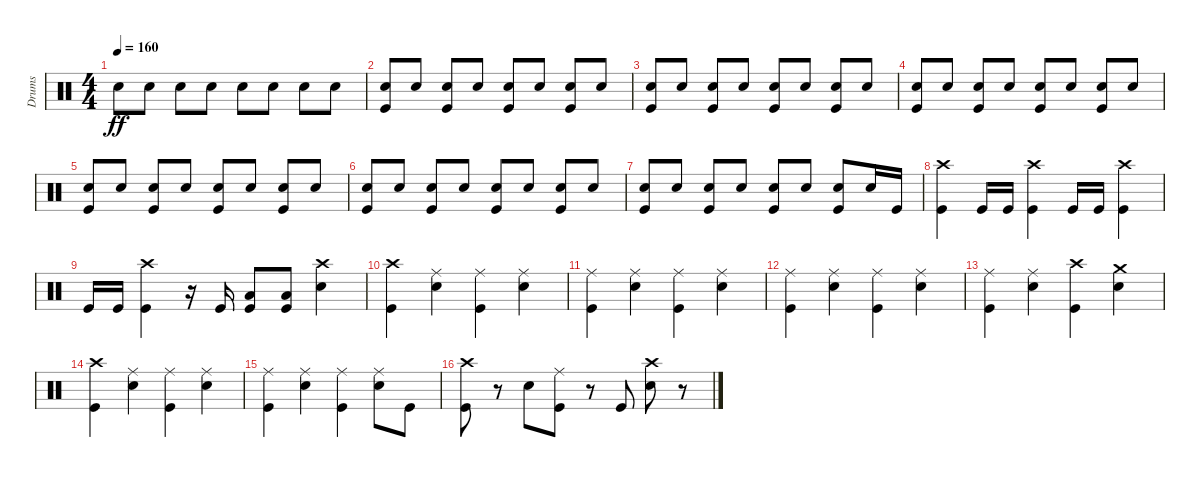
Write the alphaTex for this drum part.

\track ("Drums" "Drums") {instrument percussion}
\staff {score}
\articulation defaults
\ts (4 4)
\tempo 160
\clef neutral
\ks c "Snare (hit) 2".8{dy ff} "Snare (hit) 2".8 "Snare (hit) 2".8 "Snare (hit) 2".8 "Snare (hit) 2".8 "Snare (hit) 2".8 "Snare (hit) 2".8 "Snare (hit) 2".8
|
("Snare (hit) 2" "Kick (hit)").8 "Snare (hit) 2".8 ("Snare (hit) 2" "Kick (hit)").8 "Snare (hit) 2".8 ("Snare (hit) 2" "Kick (hit)").8 "Snare (hit) 2".8 ("Snare (hit) 2" "Kick (hit)").8 "Snare (hit) 2".8 |
("Snare (hit) 2" "Kick (hit)").8 "Snare (hit) 2".8 ("Snare (hit) 2" "Kick (hit)").8 "Snare (hit) 2".8 ("Snare (hit) 2" "Kick (hit)").8 "Snare (hit) 2".8 ("Snare (hit) 2" "Kick (hit)").8 "Snare (hit) 2".8 |
("Snare (hit) 2" "Kick (hit)").8 "Snare (hit) 2".8 ("Snare (hit) 2" "Kick (hit)").8 "Snare (hit) 2".8 ("Snare (hit) 2" "Kick (hit)").8 "Snare (hit) 2".8 ("Snare (hit) 2" "Kick (hit)").8 "Snare (hit) 2".8 |
("Snare (hit) 2" "Kick (hit)").8 "Snare (hit) 2".8 ("Snare (hit) 2" "Kick (hit)").8 "Snare (hit) 2".8 ("Snare (hit) 2" "Kick (hit)").8 "Snare (hit) 2".8 ("Snare (hit) 2" "Kick (hit)").8 "Snare (hit) 2".8 |
("Snare (hit) 2" "Kick (hit)").8 "Snare (hit) 2".8 ("Snare (hit) 2" "Kick (hit)").8 "Snare (hit) 2".8 ("Snare (hit) 2" "Kick (hit)").8 "Snare (hit) 2".8 ("Snare (hit) 2" "Kick (hit)").8 "Snare (hit) 2".8 |
("Snare (hit) 2" "Kick (hit)").8 "Snare (hit) 2".8 ("Snare (hit) 2" "Kick (hit)").8 "Snare (hit) 2".8 ("Snare (hit) 2" "Kick (hit)").8 "Snare (hit) 2".8 ("Snare (hit) 2" "Kick (hit)").8 "Snare (hit) 2".16 "Kick (hit)".16 |
("Crash high (hit)" "Kick (hit)").4 "Kick (hit)".16 "Kick (hit)".16 ("Crash high (hit)" "Kick (hit)").4 "Kick (hit)".16 "Kick (hit)".16 ("Crash high (hit)" "Kick (hit)").4 |
"Kick (hit)".16 "Kick (hit)".16 ("Crash high (hit)" "Kick (hit)").4 r.16 "Kick (hit)".16 ("Low Floor Tom (hit)" "Kick (hit)").8 ("Low Floor Tom (hit)" "Kick (hit)").8 ("Crash high (hit)" "Snare (hit) 2").4 |
("Crash high (hit)" "Kick (hit)").4 ("Ride (middle)" "Snare (hit) 2").4 ("Ride (middle)" "Kick (hit)").4 ("Ride (middle)" "Snare (hit) 2").4 |
("Ride (middle)" "Kick (hit)").4 ("Ride (middle)" "Snare (hit) 2").4 ("Ride (middle)" "Kick (hit)").4 ("Ride (middle)" "Snare (hit) 2").4 |
("Ride (middle)" "Kick (hit)").4 ("Ride (middle)" "Snare (hit) 2").4 ("Ride (middle)" "Kick (hit)").4 ("Ride (middle)" "Snare (hit) 2").4 |
("Ride (middle)" "Kick (hit)").4 ("Ride (middle)" "Snare (hit) 2").4 ("Crash high (hit)" "Kick (hit)").4 ("Crash medium (hit)" "Snare (hit) 2").4 |
("Crash high (hit)" "Kick (hit)").4 ("Ride (middle)" "Snare (hit) 2").4 ("Ride (middle)" "Kick (hit)").4 ("Ride (middle)" "Snare (hit) 2").4 |
("Ride (middle)" "Kick (hit)").4 ("Ride (middle)" "Snare (hit) 2").4 ("Ride (middle)" "Kick (hit)").4 ("Ride (middle)" "Snare (hit) 2").8 "Kick (hit)".8 |
("Crash high (hit)" "Kick (hit)").8 r.8 "Snare (hit) 2".8 ("Ride (middle)" "Kick (hit)").8 r.8 "Kick (hit)".8 ("Crash high (hit)" "Snare (hit) 2").8 r.8
